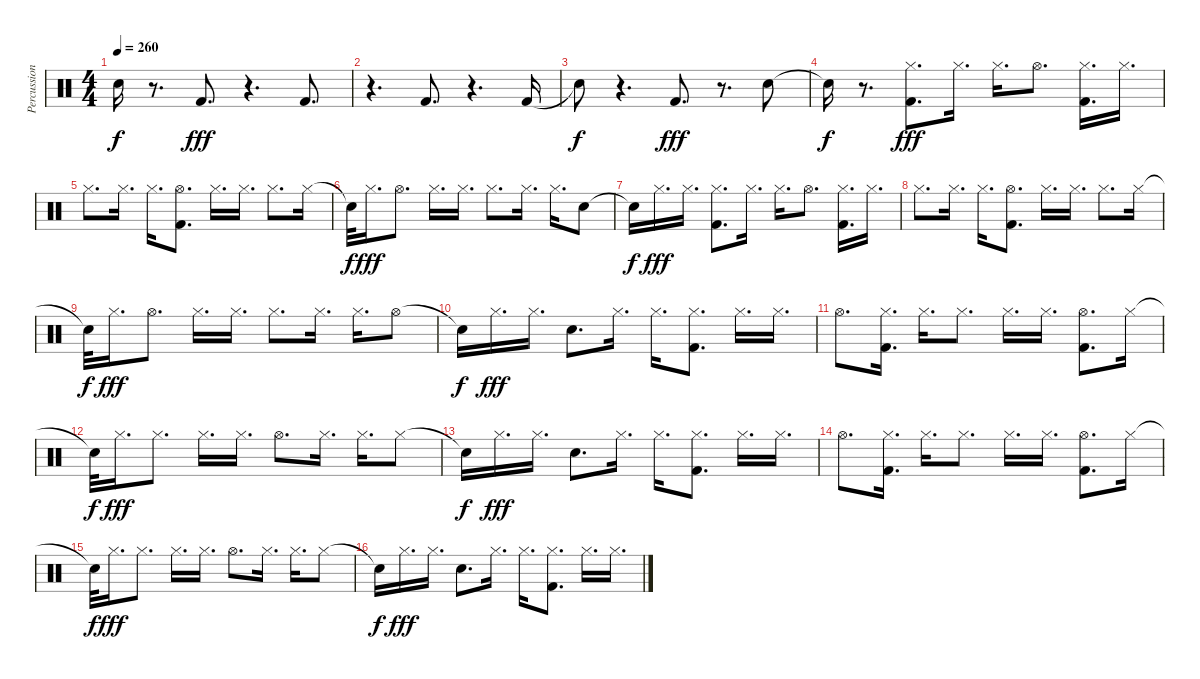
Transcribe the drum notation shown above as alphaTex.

\track ("Percussion" "Percussion") {instrument percussion}
\staff {score}
\articulation defaults
\ts (4 4)
\tempo 260
\clef neutral
\ks c "Snare (hit)"{t}.16{dy f}
r.8{d} "Kick (hit) 2".8{d dy fff} r.4{d} "Kick (hit) 2".8{d} |
r.4{d} "Kick (hit) 2".8{d} r.4{d} "Kick (hit) 2".16 |
"Snare (hit)"{t}.8{dy f} r.4{d} "Kick (hit) 2".8{d dy fff} r.8{d} "Electric Snare (hit)".8 |
"Snare (hit)"{t}.16{dy f} r.8{d} ("Hi-Hat (closed)" "Kick (hit) 2").8{d dy fff} "Hi-Hat (closed)".16{d} "Hi-Hat (closed)".16{d} "Hi-Hat (open)".8{d} ("Hi-Hat (closed)" "Kick (hit) 2").16{d} "Hi-Hat (closed)".16{d} |
"Hi-Hat (closed)".8{d} "Hi-Hat (closed)".16{d} "Hi-Hat (closed)".16{d} ("Hi-Hat (open)" "Kick (hit) 2").8{d} "Hi-Hat (closed)".16{d} "Hi-Hat (closed)".16{d} "Hi-Hat (closed)".8{d} "Hi-Hat (closed)".16 |
"Snare (hit)"{t}.32{dy f} "Hi-Hat (closed)".16{d dy fff} "Hi-Hat (open)".8{d} "Hi-Hat (closed)".16{d} "Hi-Hat (closed)".16{d} "Hi-Hat (closed)".8{d} "Hi-Hat (closed)".16{d} "Hi-Hat (closed)".16{d} "Electric Snare (hit)".8 |
"Snare (hit)"{t}.16{dy f} "Hi-Hat (closed)".16{d dy fff} "Hi-Hat (closed)".16{d} ("Hi-Hat (closed)" "Kick (hit) 2").8{d} "Hi-Hat (closed)".16{d} "Hi-Hat (closed)".16{d} "Hi-Hat (open)".8{d} ("Hi-Hat (closed)" "Kick (hit) 2").16{d} "Hi-Hat (closed)".16{d} |
"Hi-Hat (closed)".8{d} "Hi-Hat (closed)".16{d} "Hi-Hat (closed)".16{d} ("Hi-Hat (open)" "Kick (hit) 2").8{d} "Hi-Hat (closed)".16{d} "Hi-Hat (closed)".16{d} "Hi-Hat (closed)".8{d} "Hi-Hat (closed)".16 |
"Snare (hit)"{t}.32{dy f} "Hi-Hat (closed)".16{d dy fff} "Hi-Hat (open)".8{d} "Hi-Hat (closed)".16{d} "Hi-Hat (closed)".16{d} "Hi-Hat (closed)".8{d} "Hi-Hat (closed)".16{d} "Hi-Hat (closed)".16{d} "Hi-Hat (open)".8 |
"Snare (hit)"{t}.16{dy f} "Hi-Hat (closed)".16{d dy fff} "Hi-Hat (closed)".16{d} "Electric Snare (hit)".8{d} "Hi-Hat (closed)".16{d} "Hi-Hat (closed)".16{d} ("Hi-Hat (closed)" "Kick (hit) 2").8{d} "Hi-Hat (closed)".16{d} "Hi-Hat (closed)".16{d} |
"Hi-Hat (open)".8{d} ("Hi-Hat (closed)" "Kick (hit) 2").16{d} "Hi-Hat (closed)".16{d} "Hi-Hat (closed)".8{d} "Hi-Hat (closed)".16{d} "Hi-Hat (closed)".16{d} ("Hi-Hat (open)" "Kick (hit) 2").8{d} "Hi-Hat (closed)".16 |
"Snare (hit)"{t}.32{dy f} "Hi-Hat (closed)".16{d dy fff} "Hi-Hat (closed)".8{d} "Hi-Hat (closed)".16{d} "Hi-Hat (closed)".16{d} "Hi-Hat (open)".8{d} "Hi-Hat (closed)".16{d} "Hi-Hat (closed)".16{d} "Hi-Hat (closed)".8 |
"Snare (hit)"{t}.16{dy f} "Hi-Hat (closed)".16{d dy fff} "Hi-Hat (closed)".16{d} "Electric Snare (hit)".8{d} "Hi-Hat (closed)".16{d} "Hi-Hat (closed)".16{d} ("Hi-Hat (closed)" "Kick (hit) 2").8{d} "Hi-Hat (closed)".16{d} "Hi-Hat (closed)".16{d} |
"Hi-Hat (open)".8{d} ("Hi-Hat (closed)" "Kick (hit) 2").16{d} "Hi-Hat (closed)".16{d} "Hi-Hat (closed)".8{d} "Hi-Hat (closed)".16{d} "Hi-Hat (closed)".16{d} ("Hi-Hat (open)" "Kick (hit) 2").8{d} "Hi-Hat (closed)".16 |
"Snare (hit)"{t}.32{dy f} "Hi-Hat (closed)".16{d dy fff} "Hi-Hat (closed)".8{d} "Hi-Hat (closed)".16{d} "Hi-Hat (closed)".16{d} "Hi-Hat (open)".8{d} "Hi-Hat (closed)".16{d} "Hi-Hat (closed)".16{d} "Hi-Hat (closed)".8 |
"Snare (hit)"{t}.16{dy f} "Hi-Hat (closed)".16{d dy fff} "Hi-Hat (closed)".16{d} "Electric Snare (hit)".8{d} "Hi-Hat (closed)".16{d} "Hi-Hat (closed)".16{d} ("Hi-Hat (closed)" "Kick (hit) 2").8{d} "Hi-Hat (closed)".16{d} "Hi-Hat (closed)".16{d}
